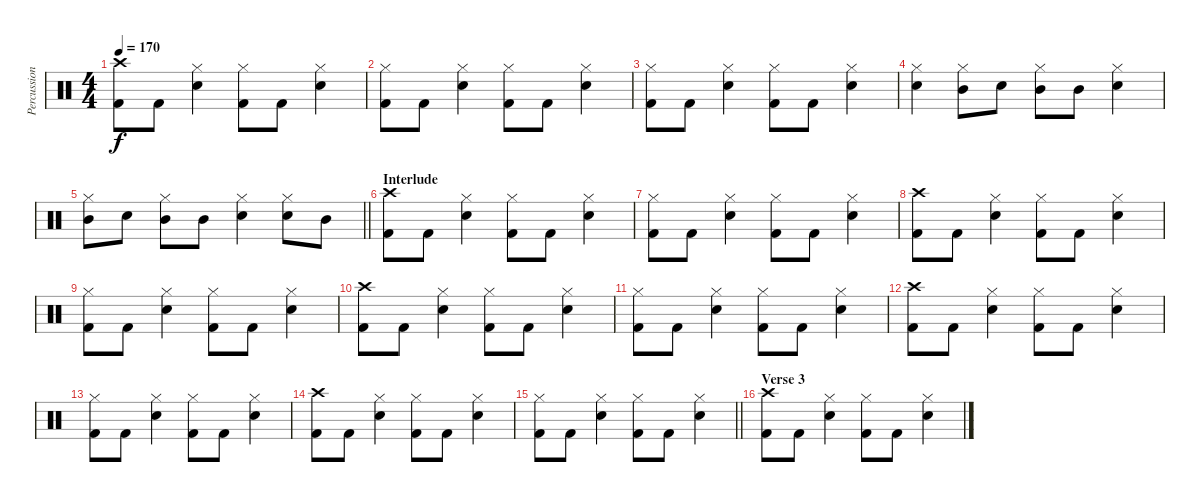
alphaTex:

\track ("Percussion" "Percussion") {instrument percussion}
\staff {score}
\articulation defaults
\ts (4 4)
\tempo 170
\clef neutral
\ks c
("Crash high (hit)" "Kick (hit) 2").8{dy f} "Kick (hit) 2".8 ("Hi-Hat (closed)" "Electric Snare (hit)").4 ("Hi-Hat (closed)" "Kick (hit) 2").8 "Kick (hit) 2".8 ("Hi-Hat (closed)" "Electric Snare (hit)").4 |
("Hi-Hat (closed)" "Kick (hit) 2").8 "Kick (hit) 2".8 ("Hi-Hat (closed)" "Electric Snare (hit)").4 ("Hi-Hat (closed)" "Kick (hit) 2").8 "Kick (hit) 2".8 ("Hi-Hat (closed)" "Electric Snare (hit)").4 |
("Hi-Hat (closed)" "Kick (hit) 2").8 "Kick (hit) 2".8 ("Hi-Hat (closed)" "Electric Snare (hit)").4 ("Hi-Hat (closed)" "Kick (hit) 2").8 "Kick (hit) 2".8 ("Hi-Hat (closed)" "Electric Snare (hit)").4 |
("Hi-Hat (closed)" "Electric Snare (hit)").4 ("Hi-Hat (closed)" "Mid Tom (hit)").8 "Electric Snare (hit)".8 ("Hi-Hat (closed)" "Mid Tom (hit)").8 "Mid Tom (hit)".8 ("Hi-Hat (closed)" "Electric Snare (hit)").4 |
\barLineRight lightlight
("Hi-Hat (closed)" "Mid Tom (hit)").8 "Electric Snare (hit)".8 ("Hi-Hat (closed)" "Mid Tom (hit)").8 "Mid Tom (hit)".8 ("Hi-Hat (closed)" "Electric Snare (hit)").4 ("Hi-Hat (closed)" "Electric Snare (hit)").8 "Mid Tom (hit)".8 |
\section ("" "Interlude")
("Crash high (hit)" "Kick (hit) 2").8 "Kick (hit) 2".8 ("Hi-Hat (closed)" "Electric Snare (hit)").4 ("Hi-Hat (closed)" "Kick (hit) 2").8 "Kick (hit) 2".8 ("Hi-Hat (closed)" "Electric Snare (hit)").4 |
("Hi-Hat (closed)" "Kick (hit) 2").8 "Kick (hit) 2".8 ("Hi-Hat (closed)" "Electric Snare (hit)").4 ("Hi-Hat (closed)" "Kick (hit) 2").8 "Kick (hit) 2".8 ("Hi-Hat (closed)" "Electric Snare (hit)").4 |
("Crash high (hit)" "Kick (hit) 2").8 "Kick (hit) 2".8 ("Hi-Hat (closed)" "Electric Snare (hit)").4 ("Hi-Hat (closed)" "Kick (hit) 2").8 "Kick (hit) 2".8 ("Hi-Hat (closed)" "Electric Snare (hit)").4 |
("Hi-Hat (closed)" "Kick (hit) 2").8 "Kick (hit) 2".8 ("Hi-Hat (closed)" "Electric Snare (hit)").4 ("Hi-Hat (closed)" "Kick (hit) 2").8 "Kick (hit) 2".8 ("Hi-Hat (closed)" "Electric Snare (hit)").4 |
("Crash high (hit)" "Kick (hit) 2").8 "Kick (hit) 2".8 ("Hi-Hat (closed)" "Electric Snare (hit)").4 ("Hi-Hat (closed)" "Kick (hit) 2").8 "Kick (hit) 2".8 ("Hi-Hat (closed)" "Electric Snare (hit)").4 |
("Hi-Hat (closed)" "Kick (hit) 2").8 "Kick (hit) 2".8 ("Hi-Hat (closed)" "Electric Snare (hit)").4 ("Hi-Hat (closed)" "Kick (hit) 2").8 "Kick (hit) 2".8 ("Hi-Hat (closed)" "Electric Snare (hit)").4 |
("Crash high (hit)" "Kick (hit) 2").8 "Kick (hit) 2".8 ("Hi-Hat (closed)" "Electric Snare (hit)").4 ("Hi-Hat (closed)" "Kick (hit) 2").8 "Kick (hit) 2".8 ("Hi-Hat (closed)" "Electric Snare (hit)").4 |
("Hi-Hat (closed)" "Kick (hit) 2").8 "Kick (hit) 2".8 ("Hi-Hat (closed)" "Electric Snare (hit)").4 ("Hi-Hat (closed)" "Kick (hit) 2").8 "Kick (hit) 2".8 ("Hi-Hat (closed)" "Electric Snare (hit)").4 |
("Crash high (hit)" "Kick (hit) 2").8 "Kick (hit) 2".8 ("Hi-Hat (closed)" "Electric Snare (hit)").4 ("Hi-Hat (closed)" "Kick (hit) 2").8 "Kick (hit) 2".8 ("Hi-Hat (closed)" "Electric Snare (hit)").4 |
\barLineRight lightlight
("Hi-Hat (closed)" "Kick (hit) 2").8 "Kick (hit) 2".8 ("Hi-Hat (closed)" "Electric Snare (hit)").4 ("Hi-Hat (closed)" "Kick (hit) 2").8 "Kick (hit) 2".8 ("Hi-Hat (closed)" "Electric Snare (hit)").4 |
\section ("" "Verse 3")
("Crash high (hit)" "Kick (hit) 2").8 "Kick (hit) 2".8 ("Hi-Hat (closed)" "Electric Snare (hit)").4 ("Hi-Hat (closed)" "Kick (hit) 2").8 "Kick (hit) 2".8 ("Hi-Hat (closed)" "Electric Snare (hit)").4
